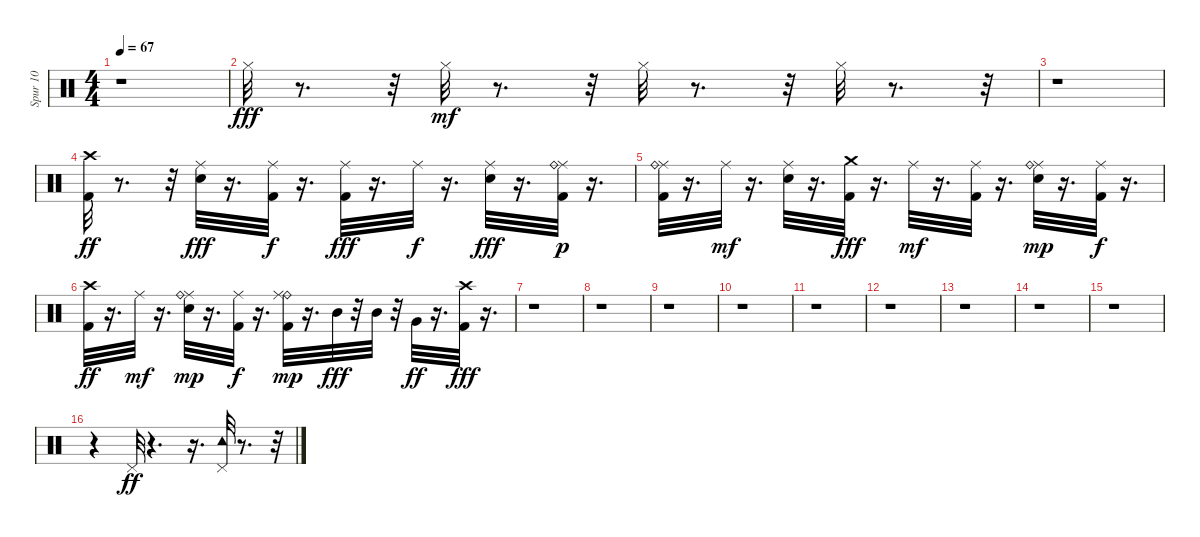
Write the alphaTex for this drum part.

\track ("Spur 10" "Spur 10") {instrument percussion}
\staff {score}
\articulation defaults
\ts (4 4)
\tempo 67
\clef neutral
\ks c
r.1{dy fff} |
"Hi-Hat (closed)".32 r.8{d} r.32 "Hi-Hat (closed)".32{dy mf} r.8{d} r.32 "Hi-Hat (closed)".32 r.8{d} r.32 "Hi-Hat (closed)".32 r.8{d} r.32 |
r.1 |
("Kick (hit) 2" "Crash high (hit)").32{dy ff} r.8{d} r.32 ("Snare (hit) 2" "Ride (middle)").32{dy fff} r.16{d} ("Kick (hit) 2" "Ride (middle)").32{dy f} r.16{d} ("Ride (middle)" "Kick (hit) 2").32{dy fff} r.16{d} "Ride (middle)".32{dy f} r.16{d} ("Ride (middle)" "Snare (hit) 2").32{dy fff} r.16{d} ("Ride (middle)" "Kick (hit) 2" "Ride (bell)").32{dy p} r.16{d} |
("Kick (hit) 2" "Ride (middle)" "Ride (bell)").32 r.16{d} "Ride (middle)".32{dy mf} r.16{d} ("Snare (hit) 2" "Ride (middle)").32 r.16{d} ("Crash medium (hit)" "Kick (hit) 2").32{dy fff} r.16{d} "Ride (middle)".32{dy mf} r.16{d} ("Kick (hit) 2" "Ride (middle)").32 r.16{d} ("Snare (hit) 2" "Ride (middle)" "Ride (bell)").32{dy mp} r.16{d} ("Kick (hit) 2" "Ride (middle)").32{dy f} r.16{d} |
("Kick (hit) 2" "Crash high (hit)").32{dy ff} r.16{d} "Ride (middle)".32{dy mf} r.16{d} ("Snare (hit) 2" "Ride (middle)" "Ride (bell)").32{dy mp} r.16{d} ("Kick (hit) 2" "Ride (middle)").32{dy f} r.16{d} ("Kick (hit) 2" "Ride (bell)" "Ride (middle)").32{dy mp} r.16{d} "Mid Tom (hit)".32{dy fff} r.32 "Mid Tom (hit)".32 r.32 "Very Low Tom (hit)".32{dy ff} r.16{d} ("Kick (hit) 2" "Crash high (hit)").32{dy fff} r.16{d} |
r.1 |
r.1 |
r.1 |
r.1 |
r.1 |
r.1 |
r.1 |
r.1 |
r.1 |
r.4 "Pedal Hi-Hat (hit)".32{dy ff} r.4{d} r.16{d} ("Tambourine (hit)" "Pedal Hi-Hat (hit)").32 r.8{d} r.32
